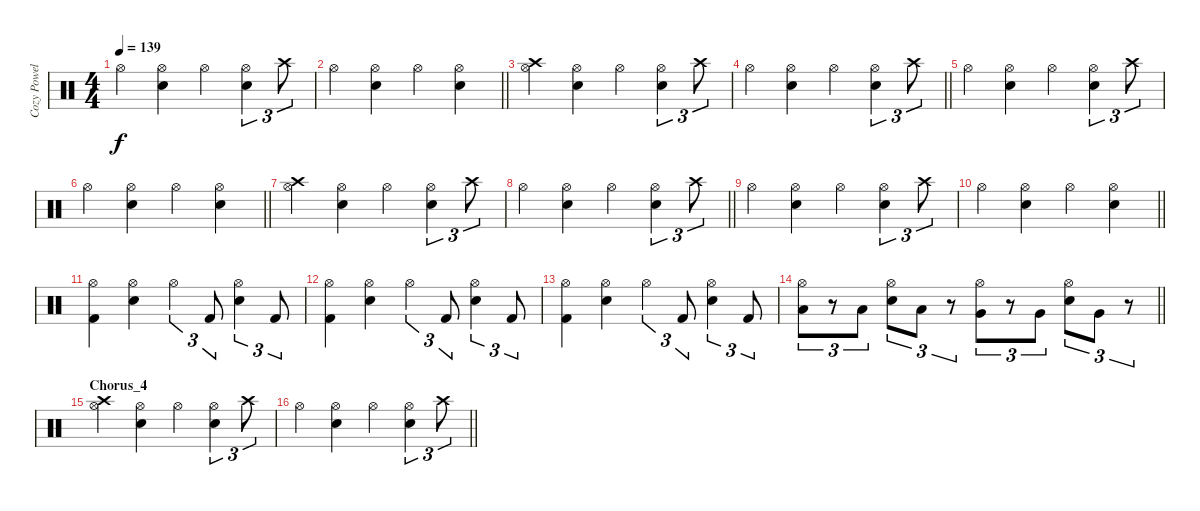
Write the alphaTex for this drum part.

\track ("Cozy Powell" "Cozy Powel") {instrument percussion}
\staff {score}
\articulation defaults
\ts (4 4)
\tempo 139
\clef neutral
\ks c "Hi-Hat (open)".4{dy f}
("Hi-Hat (open)" "Snare (hit) 2").4 "Hi-Hat (open)".4 ("Hi-Hat (open)" "Snare (hit) 2").4{tu (3 2)} "Crash high (hit)".8{tu (3 2)} |
\barLineRight lightlight "Hi-Hat (open)".4
("Hi-Hat (open)" "Snare (hit) 2").4 "Hi-Hat (open)".4 ("Hi-Hat (open)" "Snare (hit) 2").4 |
("Hi-Hat (open)" "Crash high (hit)").4 ("Hi-Hat (open)" "Snare (hit) 2").4 "Hi-Hat (open)".4 ("Hi-Hat (open)" "Snare (hit) 2").4{tu (3 2)} "Crash high (hit)".8{tu (3 2)} |
\barLineRight lightlight "Hi-Hat (open)".4
("Hi-Hat (open)" "Snare (hit) 2").4 "Hi-Hat (open)".4 ("Hi-Hat (open)" "Snare (hit) 2").4{tu (3 2)} "Crash high (hit)".8{tu (3 2)} |
"Hi-Hat (open)".4 ("Hi-Hat (open)" "Snare (hit) 2").4 "Hi-Hat (open)".4 ("Hi-Hat (open)" "Snare (hit) 2").4{tu (3 2)} "Crash high (hit)".8{tu (3 2)} |
\barLineRight lightlight "Hi-Hat (open)".4
("Hi-Hat (open)" "Snare (hit) 2").4 "Hi-Hat (open)".4 ("Hi-Hat (open)" "Snare (hit) 2").4 |
("Hi-Hat (open)" "Crash high (hit)").4 ("Hi-Hat (open)" "Snare (hit) 2").4 "Hi-Hat (open)".4 ("Hi-Hat (open)" "Snare (hit) 2").4{tu (3 2)} "Crash high (hit)".8{tu (3 2)} |
\barLineRight lightlight "Hi-Hat (open)".4
("Hi-Hat (open)" "Snare (hit) 2").4 "Hi-Hat (open)".4 ("Hi-Hat (open)" "Snare (hit) 2").4{tu (3 2)} "Crash high (hit)".8{tu (3 2)} |
"Hi-Hat (open)".4 ("Hi-Hat (open)" "Snare (hit) 2").4 "Hi-Hat (open)".4 ("Hi-Hat (open)" "Snare (hit) 2").4{tu (3 2)} "Crash high (hit)".8{tu (3 2)} |
\barLineRight lightlight "Hi-Hat (open)".4
("Hi-Hat (open)" "Snare (hit) 2").4 "Hi-Hat (open)".4 ("Hi-Hat (open)" "Snare (hit) 2").4 |
("Hi-Hat (open)" "Kick (hit) 2").4 ("Hi-Hat (open)" "Snare (hit) 2").4 "Hi-Hat (open)".4{tu (3 2)} "Kick (hit) 2".8{tu (3 2)} ("Hi-Hat (open)" "Snare (hit) 2").4{tu (3 2)} "Kick (hit) 2".8{tu (3 2)} |
("Hi-Hat (open)" "Kick (hit) 2").4 ("Hi-Hat (open)" "Snare (hit) 2").4 "Hi-Hat (open)".4{tu (3 2)} "Kick (hit) 2".8{tu (3 2)} ("Hi-Hat (open)" "Snare (hit) 2").4{tu (3 2)} "Kick (hit) 2".8{tu (3 2)} |
("Hi-Hat (open)" "Kick (hit) 2").4 ("Hi-Hat (open)" "Snare (hit) 2").4 "Hi-Hat (open)".4{tu (3 2)} "Kick (hit) 2".8{tu (3 2)} ("Hi-Hat (open)" "Snare (hit) 2").4{tu (3 2)} "Kick (hit) 2".8{tu (3 2)} |
\barLineRight lightlight
("Hi-Hat (open)" "Low Tom (hit)").8{tu (3 2)} r.8{tu (3 2)} "Low Tom (hit)".8{tu (3 2)} ("Hi-Hat (open)" "Snare (hit) 2").8{tu (3 2)} "Low Tom (hit)".8{tu (3 2)} r.8{tu (3 2)} ("Hi-Hat (open)" "Very Low Tom (hit)").8{tu (3 2)} r.8{tu (3 2)} "Very Low Tom (hit)".8{tu (3 2)} ("Hi-Hat (open)" "Snare (hit) 2").8{tu (3 2)} "Very Low Tom (hit)".8{tu (3 2)} r.8{tu (3 2)} |
\section ("" "Chorus_4")
("Hi-Hat (open)" "Crash high (hit)").4 ("Hi-Hat (open)" "Snare (hit) 2").4 "Hi-Hat (open)".4 ("Hi-Hat (open)" "Snare (hit) 2").4{tu (3 2)} "Crash high (hit)".8{tu (3 2)} |
\barLineRight lightlight "Hi-Hat (open)".4
("Hi-Hat (open)" "Snare (hit) 2").4 "Hi-Hat (open)".4 ("Hi-Hat (open)" "Snare (hit) 2").4{tu (3 2)} "Crash high (hit)".8{tu (3 2)}
